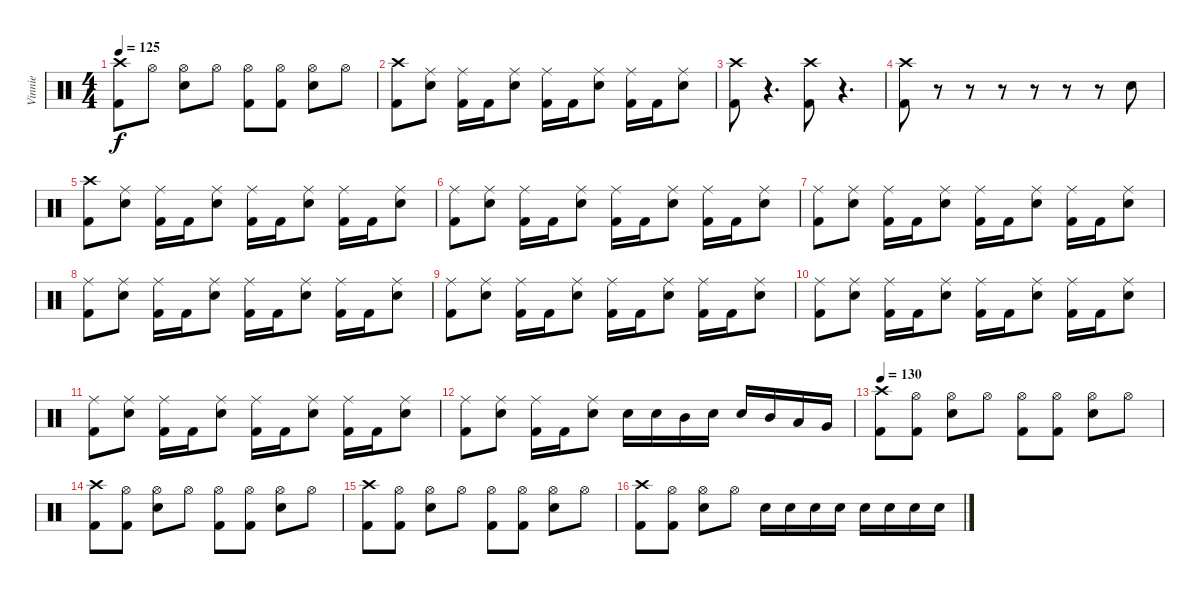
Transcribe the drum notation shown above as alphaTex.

\track ("Vinnie" "Vinnie") {instrument percussion}
\staff {score}
\articulation defaults
\ts (4 4)
\tempo 125
\clef neutral
\ks c
("Crash high (hit)" "Kick (hit) 2").8{dy f} "Hi-Hat (open)".8 ("Hi-Hat (open)" "Electric Snare (hit)").8 "Hi-Hat (open)".8 ("Hi-Hat (open)" "Kick (hit) 2").8 ("Hi-Hat (open)" "Kick (hit) 2").8 ("Hi-Hat (open)" "Electric Snare (hit)").8 "Hi-Hat (open)".8 |
("Crash high (hit)" "Kick (hit) 2").8 ("Ride (middle)" "Electric Snare (hit)").8 ("Ride (middle)" "Kick (hit) 2").16 "Kick (hit) 2".16 ("Ride (middle)" "Electric Snare (hit)").8 ("Ride (middle)" "Kick (hit) 2").16 "Kick (hit) 2".16 ("Ride (middle)" "Electric Snare (hit)").8 ("Ride (middle)" "Kick (hit) 2").16 "Kick (hit) 2".16 ("Ride (middle)" "Electric Snare (hit)").8 |
("Crash high (hit)" "Kick (hit) 2").8 r.4{d} ("Crash high (hit)" "Kick (hit) 2").8 r.4{d} |
("Crash high (hit)" "Kick (hit) 2").8 r.8 r.8 r.8 r.8 r.8 r.8 "Electric Snare (hit)".8 |
("Crash high (hit)" "Kick (hit) 2").8 ("Ride (middle)" "Electric Snare (hit)").8 ("Ride (middle)" "Kick (hit) 2").16 "Kick (hit) 2".16 ("Ride (middle)" "Electric Snare (hit)").8 ("Ride (middle)" "Kick (hit) 2").16 "Kick (hit) 2".16 ("Ride (middle)" "Electric Snare (hit)").8 ("Ride (middle)" "Kick (hit) 2").16 "Kick (hit) 2".16 ("Ride (middle)" "Electric Snare (hit)").8 |
("Ride (middle)" "Kick (hit) 2").8 ("Ride (middle)" "Electric Snare (hit)").8 ("Ride (middle)" "Kick (hit) 2").16 "Kick (hit) 2".16 ("Ride (middle)" "Electric Snare (hit)").8 ("Ride (middle)" "Kick (hit) 2").16 "Kick (hit) 2".16 ("Ride (middle)" "Electric Snare (hit)").8 ("Ride (middle)" "Kick (hit) 2").16 "Kick (hit) 2".16 ("Ride (middle)" "Electric Snare (hit)").8 |
("Ride (middle)" "Kick (hit) 2").8 ("Ride (middle)" "Electric Snare (hit)").8 ("Ride (middle)" "Kick (hit) 2").16 "Kick (hit) 2".16 ("Ride (middle)" "Electric Snare (hit)").8 ("Ride (middle)" "Kick (hit) 2").16 "Kick (hit) 2".16 ("Ride (middle)" "Electric Snare (hit)").8 ("Ride (middle)" "Kick (hit) 2").16 "Kick (hit) 2".16 ("Ride (middle)" "Electric Snare (hit)").8 |
("Ride (middle)" "Kick (hit) 2").8 ("Ride (middle)" "Electric Snare (hit)").8 ("Ride (middle)" "Kick (hit) 2").16 "Kick (hit) 2".16 ("Ride (middle)" "Electric Snare (hit)").8 ("Ride (middle)" "Kick (hit) 2").16 "Kick (hit) 2".16 ("Ride (middle)" "Electric Snare (hit)").8 ("Ride (middle)" "Kick (hit) 2").16 "Kick (hit) 2".16 ("Ride (middle)" "Electric Snare (hit)").8 |
("Ride (middle)" "Kick (hit) 2").8 ("Ride (middle)" "Electric Snare (hit)").8 ("Ride (middle)" "Kick (hit) 2").16 "Kick (hit) 2".16 ("Ride (middle)" "Electric Snare (hit)").8 ("Ride (middle)" "Kick (hit) 2").16 "Kick (hit) 2".16 ("Ride (middle)" "Electric Snare (hit)").8 ("Ride (middle)" "Kick (hit) 2").16 "Kick (hit) 2".16 ("Ride (middle)" "Electric Snare (hit)").8 |
("Ride (middle)" "Kick (hit) 2").8 ("Ride (middle)" "Electric Snare (hit)").8 ("Ride (middle)" "Kick (hit) 2").16 "Kick (hit) 2".16 ("Ride (middle)" "Electric Snare (hit)").8 ("Ride (middle)" "Kick (hit) 2").16 "Kick (hit) 2".16 ("Ride (middle)" "Electric Snare (hit)").8 ("Ride (middle)" "Kick (hit) 2").16 "Kick (hit) 2".16 ("Ride (middle)" "Electric Snare (hit)").8 |
("Ride (middle)" "Kick (hit) 2").8 ("Ride (middle)" "Electric Snare (hit)").8 ("Ride (middle)" "Kick (hit) 2").16 "Kick (hit) 2".16 ("Ride (middle)" "Electric Snare (hit)").8 ("Ride (middle)" "Kick (hit) 2").16 "Kick (hit) 2".16 ("Ride (middle)" "Electric Snare (hit)").8 ("Ride (middle)" "Kick (hit) 2").16 "Kick (hit) 2".16 ("Ride (middle)" "Electric Snare (hit)").8 |
("Ride (middle)" "Kick (hit) 2").8 ("Ride (middle)" "Electric Snare (hit)").8 ("Ride (middle)" "Kick (hit) 2").16 "Kick (hit) 2".16 ("Ride (middle)" "Electric Snare (hit)").8 "Electric Snare (hit)".16 "Electric Snare (hit)".16 "Mid Tom (hit)".16 "Electric Snare (hit)".16 "Electric Snare (hit)".16 "Mid Tom (hit)".16 "Low Tom (hit)".16 "Very Low Tom (hit)".16 |
\tempo 130
("Crash high (hit)" "Kick (hit) 2").8 ("Hi-Hat (open)" "Kick (hit) 2").8 ("Hi-Hat (open)" "Electric Snare (hit)").8 "Hi-Hat (open)".8 ("Hi-Hat (open)" "Kick (hit) 2").8 ("Hi-Hat (open)" "Kick (hit) 2").8 ("Hi-Hat (open)" "Electric Snare (hit)").8 "Hi-Hat (open)".8 |
("Crash high (hit)" "Kick (hit) 2").8 ("Hi-Hat (open)" "Kick (hit) 2").8 ("Hi-Hat (open)" "Electric Snare (hit)").8 "Hi-Hat (open)".8 ("Hi-Hat (open)" "Kick (hit) 2").8 ("Hi-Hat (open)" "Kick (hit) 2").8 ("Hi-Hat (open)" "Electric Snare (hit)").8 "Hi-Hat (open)".8 |
("Crash high (hit)" "Kick (hit) 2").8 ("Hi-Hat (open)" "Kick (hit) 2").8 ("Hi-Hat (open)" "Electric Snare (hit)").8 "Hi-Hat (open)".8 ("Hi-Hat (open)" "Kick (hit) 2").8 ("Hi-Hat (open)" "Kick (hit) 2").8 ("Hi-Hat (open)" "Electric Snare (hit)").8 "Hi-Hat (open)".8 |
("Crash high (hit)" "Kick (hit) 2").8 ("Hi-Hat (open)" "Kick (hit) 2").8 ("Hi-Hat (open)" "Electric Snare (hit)").8 "Hi-Hat (open)".8 "Electric Snare (hit)".16 "Electric Snare (hit)".16 "Electric Snare (hit)".16 "Electric Snare (hit)".16 "Electric Snare (hit)".16 "Electric Snare (hit)".16 "Electric Snare (hit)".16 "Electric Snare (hit)".16
